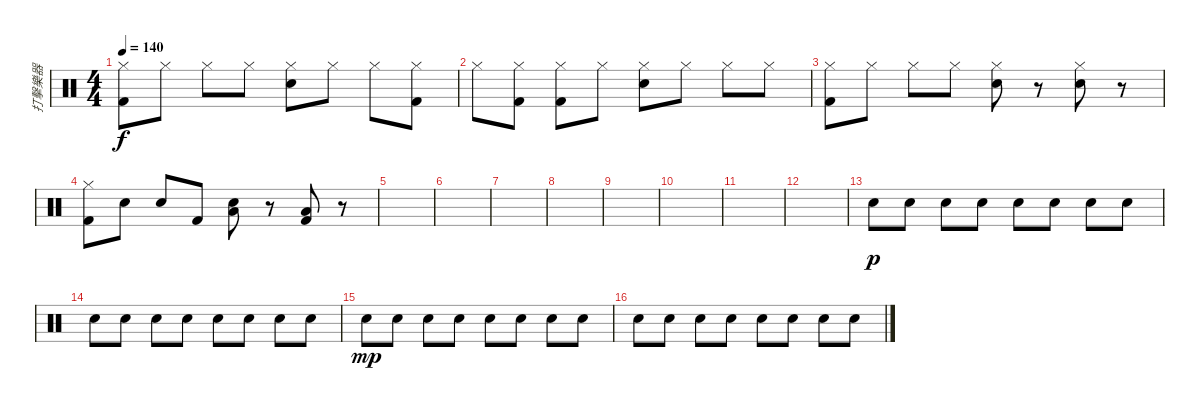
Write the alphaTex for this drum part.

\track ("打擊樂器" "打擊樂器") {instrument percussion}
\staff {score}
\articulation defaults
\ts (4 4)
\tempo 140
\clef neutral
\ks c
("Hi-Hat (closed)" "Kick (hit) 2").8{dy f} "Hi-Hat (closed)".8 "Hi-Hat (closed)".8 "Hi-Hat (closed)".8 ("Hi-Hat (closed)" "Electric Snare (hit)").8 "Hi-Hat (closed)".8 "Hi-Hat (closed)".8 ("Hi-Hat (closed)" "Kick (hit) 2").8 |
"Hi-Hat (closed)".8 ("Hi-Hat (closed)" "Kick (hit) 2").8 ("Hi-Hat (closed)" "Kick (hit) 2").8 "Hi-Hat (closed)".8 ("Hi-Hat (closed)" "Electric Snare (hit)").8 "Hi-Hat (closed)".8 "Hi-Hat (closed)".8 "Hi-Hat (closed)".8 |
("Hi-Hat (closed)" "Kick (hit) 2").8 "Hi-Hat (closed)".8 "Hi-Hat (closed)".8 "Hi-Hat (closed)".8 ("Hi-Hat (closed)" "Electric Snare (hit)").8 r.8 ("Hi-Hat (closed)" "Electric Snare (hit)").8 r.8 |
("Hi-Hat (closed)" "Kick (hit) 2").8 "Electric Snare (hit)".8 "Electric Snare (hit)".8 "Kick (hit) 2".8 ("Low Tom (hit)" "Electric Snare (hit)").8 r.8 ("Low Tom (hit)" "Kick (hit) 2").8 r.8 |
|
|
|
|
|
|
|
|
"Electric Snare (hit)".8{dy p} "Electric Snare (hit)".8 "Electric Snare (hit)".8 "Electric Snare (hit)".8 "Electric Snare (hit)".8 "Electric Snare (hit)".8 "Electric Snare (hit)".8 "Electric Snare (hit)".8 |
"Electric Snare (hit)".8 "Electric Snare (hit)".8 "Electric Snare (hit)".8 "Electric Snare (hit)".8 "Electric Snare (hit)".8 "Electric Snare (hit)".8 "Electric Snare (hit)".8 "Electric Snare (hit)".8 |
"Electric Snare (hit)".8{dy mp} "Electric Snare (hit)".8 "Electric Snare (hit)".8 "Electric Snare (hit)".8 "Electric Snare (hit)".8 "Electric Snare (hit)".8 "Electric Snare (hit)".8 "Electric Snare (hit)".8 |
"Electric Snare (hit)".8 "Electric Snare (hit)".8 "Electric Snare (hit)".8 "Electric Snare (hit)".8 "Electric Snare (hit)".8 "Electric Snare (hit)".8 "Electric Snare (hit)".8 "Electric Snare (hit)".8
